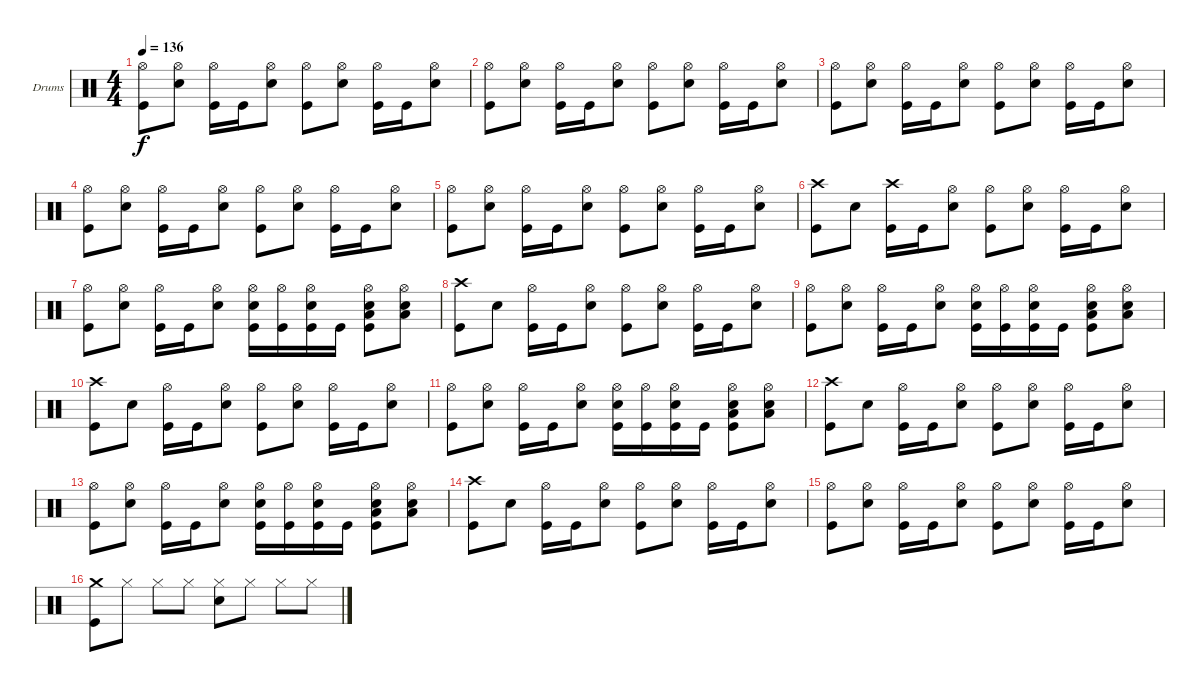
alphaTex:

\defaultSystemsLayout 4
\bracketExtendMode groupsimilarinstruments
\firstSystemTrackNameOrientation horizontal
\otherSystemsTrackNameOrientation horizontal
\track ("Lars Ulrich (Drums)" "Drums") {instrument percussion}
\staff {score}
\articulation defaults
\ts (4 4)
\tempo 136
\clef neutral
\ks c
("Hi-Hat (open)" "Kick (hit)").8{dy f} ("Hi-Hat (open)" "Snare (hit) 2").8 ("Hi-Hat (open)" "Kick (hit)").16 "Kick (hit)".16 ("Hi-Hat (open)" "Snare (hit) 2").8 ("Hi-Hat (open)" "Kick (hit)").8 ("Hi-Hat (open)" "Snare (hit) 2").8 ("Hi-Hat (open)" "Kick (hit)").16 "Kick (hit)".16 ("Hi-Hat (open)" "Snare (hit) 2").8 |
("Hi-Hat (open)" "Kick (hit)").8 ("Hi-Hat (open)" "Snare (hit) 2").8 ("Hi-Hat (open)" "Kick (hit)").16 "Kick (hit)".16 ("Hi-Hat (open)" "Snare (hit) 2").8 ("Hi-Hat (open)" "Kick (hit)").8 ("Hi-Hat (open)" "Snare (hit) 2").8 ("Hi-Hat (open)" "Kick (hit)").16 "Kick (hit)".16 ("Hi-Hat (open)" "Snare (hit) 2").8 |
("Hi-Hat (open)" "Kick (hit)").8 ("Hi-Hat (open)" "Snare (hit) 2").8 ("Hi-Hat (open)" "Kick (hit)").16 "Kick (hit)".16 ("Hi-Hat (open)" "Snare (hit) 2").8 ("Hi-Hat (open)" "Kick (hit)").8 ("Hi-Hat (open)" "Snare (hit) 2").8 ("Hi-Hat (open)" "Kick (hit)").16 "Kick (hit)".16 ("Hi-Hat (open)" "Snare (hit) 2").8 |
("Hi-Hat (open)" "Kick (hit)").8 ("Hi-Hat (open)" "Snare (hit) 2").8 ("Hi-Hat (open)" "Kick (hit)").16 "Kick (hit)".16 ("Hi-Hat (open)" "Snare (hit) 2").8 ("Hi-Hat (open)" "Kick (hit)").8 ("Hi-Hat (open)" "Snare (hit) 2").8 ("Hi-Hat (open)" "Kick (hit)").16 "Kick (hit)".16 ("Hi-Hat (open)" "Snare (hit) 2").8 |
("Hi-Hat (open)" "Kick (hit)").8 ("Hi-Hat (open)" "Snare (hit) 2").8 ("Hi-Hat (open)" "Kick (hit)").16 "Kick (hit)".16 ("Hi-Hat (open)" "Snare (hit) 2").8 ("Hi-Hat (open)" "Kick (hit)").8 ("Hi-Hat (open)" "Snare (hit) 2").8 ("Hi-Hat (open)" "Kick (hit)").16 "Kick (hit)".16 ("Hi-Hat (open)" "Snare (hit) 2").8 |
("Crash high (hit)" "Kick (hit)").8 "Snare (hit) 2".8 ("Crash high (hit)" "Kick (hit)").16 "Kick (hit)".16 ("Hi-Hat (open)" "Snare (hit) 2").8 ("Hi-Hat (open)" "Kick (hit)").8 ("Hi-Hat (open)" "Snare (hit) 2").8 ("Hi-Hat (open)" "Kick (hit)").16 "Kick (hit)".16 ("Hi-Hat (open)" "Snare (hit) 2").8 |
("Hi-Hat (open)" "Kick (hit)").8 ("Hi-Hat (open)" "Snare (hit) 2").8 ("Hi-Hat (open)" "Kick (hit)").16 "Kick (hit)".16 ("Hi-Hat (open)" "Snare (hit) 2").8 ("Hi-Hat (open)" "Snare (hit) 2" "Kick (hit)").16 ("Hi-Hat (open)" "Kick (hit)").16 ("Hi-Hat (open)" "Snare (hit) 2" "Kick (hit)").16 "Kick (hit)".16 ("Hi-Hat (open)" "Snare (hit) 2" "Low Tom (hit)" "Kick (hit)").8 ("Hi-Hat (open)" "Snare (hit) 2" "Low Tom (hit)").8 |
("Crash high (hit)" "Kick (hit)").8 "Snare (hit) 2".8 ("Hi-Hat (open)" "Kick (hit)").16 "Kick (hit)".16 ("Hi-Hat (open)" "Snare (hit) 2").8 ("Hi-Hat (open)" "Kick (hit)").8 ("Hi-Hat (open)" "Snare (hit) 2").8 ("Hi-Hat (open)" "Kick (hit)").16 "Kick (hit)".16 ("Hi-Hat (open)" "Snare (hit) 2").8 |
("Hi-Hat (open)" "Kick (hit)").8 ("Hi-Hat (open)" "Snare (hit) 2").8 ("Hi-Hat (open)" "Kick (hit)").16 "Kick (hit)".16 ("Hi-Hat (open)" "Snare (hit) 2").8 ("Hi-Hat (open)" "Snare (hit) 2" "Kick (hit)").16 ("Hi-Hat (open)" "Kick (hit)").16 ("Hi-Hat (open)" "Snare (hit) 2" "Kick (hit)").16 "Kick (hit)".16 ("Hi-Hat (open)" "Snare (hit) 2" "Low Tom (hit)" "Kick (hit)").8 ("Hi-Hat (open)" "Snare (hit) 2" "Low Tom (hit)").8 |
("Crash high (hit)" "Kick (hit)").8 "Snare (hit) 2".8 ("Hi-Hat (open)" "Kick (hit)").16 "Kick (hit)".16 ("Hi-Hat (open)" "Snare (hit) 2").8 ("Hi-Hat (open)" "Kick (hit)").8 ("Hi-Hat (open)" "Snare (hit) 2").8 ("Hi-Hat (open)" "Kick (hit)").16 "Kick (hit)".16 ("Hi-Hat (open)" "Snare (hit) 2").8 |
("Hi-Hat (open)" "Kick (hit)").8 ("Hi-Hat (open)" "Snare (hit) 2").8 ("Hi-Hat (open)" "Kick (hit)").16 "Kick (hit)".16 ("Hi-Hat (open)" "Snare (hit) 2").8 ("Hi-Hat (open)" "Snare (hit) 2" "Kick (hit)").16 ("Hi-Hat (open)" "Kick (hit)").16 ("Hi-Hat (open)" "Snare (hit) 2" "Kick (hit)").16 "Kick (hit)".16 ("Hi-Hat (open)" "Snare (hit) 2" "Low Tom (hit)" "Kick (hit)").8 ("Hi-Hat (open)" "Snare (hit) 2" "Low Tom (hit)").8 |
("Crash high (hit)" "Kick (hit)").8 "Snare (hit) 2".8 ("Hi-Hat (open)" "Kick (hit)").16 "Kick (hit)".16 ("Hi-Hat (open)" "Snare (hit) 2").8 ("Hi-Hat (open)" "Kick (hit)").8 ("Hi-Hat (open)" "Snare (hit) 2").8 ("Hi-Hat (open)" "Kick (hit)").16 "Kick (hit)".16 ("Hi-Hat (open)" "Snare (hit) 2").8 |
("Hi-Hat (open)" "Kick (hit)").8 ("Hi-Hat (open)" "Snare (hit) 2").8 ("Hi-Hat (open)" "Kick (hit)").16 "Kick (hit)".16 ("Hi-Hat (open)" "Snare (hit) 2").8 ("Hi-Hat (open)" "Snare (hit) 2" "Kick (hit)").16 ("Hi-Hat (open)" "Kick (hit)").16 ("Hi-Hat (open)" "Snare (hit) 2" "Kick (hit)").16 "Kick (hit)".16 ("Hi-Hat (open)" "Snare (hit) 2" "Low Tom (hit)" "Kick (hit)").8 ("Hi-Hat (open)" "Snare (hit) 2" "Low Tom (hit)").8 |
("Crash high (hit)" "Kick (hit)").8 "Snare (hit) 2".8 ("Hi-Hat (open)" "Kick (hit)").16 "Kick (hit)".16 ("Hi-Hat (open)" "Snare (hit) 2").8 ("Hi-Hat (open)" "Kick (hit)").8 ("Hi-Hat (open)" "Snare (hit) 2").8 ("Hi-Hat (open)" "Kick (hit)").16 "Kick (hit)".16 ("Hi-Hat (open)" "Snare (hit) 2").8 |
("Hi-Hat (open)" "Kick (hit)").8 ("Hi-Hat (open)" "Snare (hit) 2").8 ("Hi-Hat (open)" "Kick (hit)").16 "Kick (hit)".16 ("Hi-Hat (open)" "Snare (hit) 2").8 ("Hi-Hat (open)" "Kick (hit)").8 ("Hi-Hat (open)" "Snare (hit) 2").8 ("Hi-Hat (open)" "Kick (hit)").16 "Kick (hit)".16 ("Hi-Hat (open)" "Snare (hit) 2").8 |
("Crash medium (hit)" "Kick (hit)").8 "Hi-Hat (closed)".8 "Hi-Hat (closed)".8 "Hi-Hat (closed)".8 ("Hi-Hat (closed)" "Snare (hit) 2").8 "Hi-Hat (closed)".8 "Hi-Hat (closed)".8 "Hi-Hat (closed)".8
